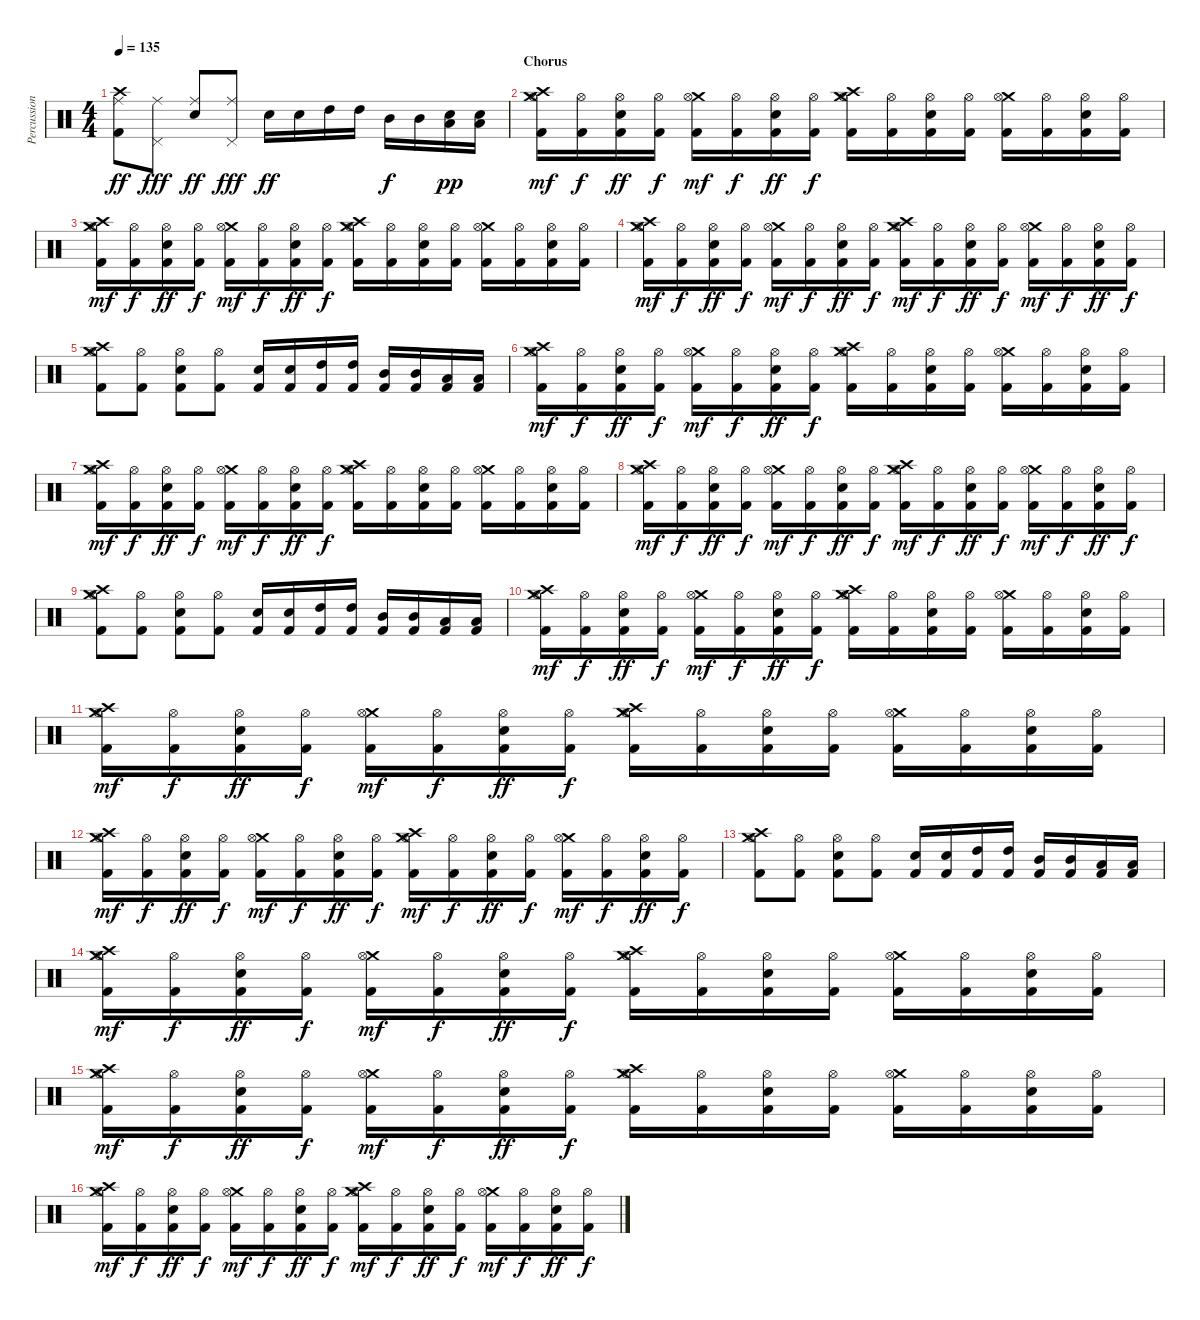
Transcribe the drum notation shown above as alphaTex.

\track ("Percussion" "Percussion") {instrument percussion}
\staff {score}
\articulation defaults
\ts (4 4)
\tempo 135
\clef neutral
\ks c
("Crash high (hit)" "Ride (middle)" "Kick (hit) 2").8{dy ff} ("Ride (middle)" "Pedal Hi-Hat (hit)").8{dy fff} ("Ride (middle)" "Electric Snare (hit)").8{dy ff} ("Ride (middle)" "Pedal Hi-Hat (hit)").8{dy fff} "Electric Snare (hit)".16{dy ff} "Electric Snare (hit)".16 "High Tom (hit)".16 "High Tom (hit)".16 "Mid Tom (hit)".16{dy f} "Mid Tom (hit)".16 ("Low Tom (hit)" "Electric Snare (hit)").16{dy pp} ("Low Tom (hit)" "Electric Snare (hit)").16 |
\section ("" "Chorus")
("Crash high (hit)" "Crash medium (hit)" "Hi-Hat (open)" "Kick (hit) 2").16{dy mf} ("Hi-Hat (open)" "Kick (hit) 2").16{dy f} ("Hi-Hat (open)" "Electric Snare (hit)" "Kick (hit) 2").16{dy ff} ("Hi-Hat (open)" "Kick (hit) 2").16{dy f} ("Crash medium (hit)" "Hi-Hat (open)" "Kick (hit) 2").16{dy mf} ("Hi-Hat (open)" "Kick (hit) 2").16{dy f} ("Hi-Hat (open)" "Electric Snare (hit)" "Kick (hit) 2").16{dy ff} ("Hi-Hat (open)" "Kick (hit) 2").16{dy f} ("Crash high (hit)" "Crash medium (hit)" "Hi-Hat (open)" "Kick (hit) 2").16 ("Hi-Hat (open)" "Kick (hit) 2").16 ("Hi-Hat (open)" "Electric Snare (hit)" "Kick (hit) 2").16 ("Hi-Hat (open)" "Kick (hit) 2").16 ("Crash medium (hit)" "Hi-Hat (open)" "Kick (hit) 2").16 ("Hi-Hat (open)" "Kick (hit) 2").16 ("Hi-Hat (open)" "Electric Snare (hit)" "Kick (hit) 2").16 ("Hi-Hat (open)" "Kick (hit) 2").16 |
("Crash high (hit)" "Crash medium (hit)" "Hi-Hat (open)" "Kick (hit) 2").16{dy mf} ("Hi-Hat (open)" "Kick (hit) 2").16{dy f} ("Hi-Hat (open)" "Electric Snare (hit)" "Kick (hit) 2").16{dy ff} ("Hi-Hat (open)" "Kick (hit) 2").16{dy f} ("Crash medium (hit)" "Hi-Hat (open)" "Kick (hit) 2").16{dy mf} ("Hi-Hat (open)" "Kick (hit) 2").16{dy f} ("Hi-Hat (open)" "Electric Snare (hit)" "Kick (hit) 2").16{dy ff} ("Hi-Hat (open)" "Kick (hit) 2").16{dy f} ("Crash high (hit)" "Crash medium (hit)" "Hi-Hat (open)" "Kick (hit) 2").16 ("Hi-Hat (open)" "Kick (hit) 2").16 ("Hi-Hat (open)" "Electric Snare (hit)" "Kick (hit) 2").16 ("Hi-Hat (open)" "Kick (hit) 2").16 ("Crash medium (hit)" "Hi-Hat (open)" "Kick (hit) 2").16 ("Hi-Hat (open)" "Kick (hit) 2").16 ("Hi-Hat (open)" "Electric Snare (hit)" "Kick (hit) 2").16 ("Hi-Hat (open)" "Kick (hit) 2").16 |
("Crash high (hit)" "Crash medium (hit)" "Hi-Hat (open)" "Kick (hit) 2").16{dy mf} ("Hi-Hat (open)" "Kick (hit) 2").16{dy f} ("Hi-Hat (open)" "Electric Snare (hit)" "Kick (hit) 2").16{dy ff} ("Hi-Hat (open)" "Kick (hit) 2").16{dy f} ("Crash medium (hit)" "Hi-Hat (open)" "Kick (hit) 2").16{dy mf} ("Hi-Hat (open)" "Kick (hit) 2").16{dy f} ("Hi-Hat (open)" "Electric Snare (hit)" "Kick (hit) 2").16{dy ff} ("Hi-Hat (open)" "Kick (hit) 2").16{dy f} ("Crash high (hit)" "Crash medium (hit)" "Hi-Hat (open)" "Kick (hit) 2").16{dy mf} ("Hi-Hat (open)" "Kick (hit) 2").16{dy f} ("Hi-Hat (open)" "Electric Snare (hit)" "Kick (hit) 2").16{dy ff} ("Hi-Hat (open)" "Kick (hit) 2").16{dy f} ("Crash medium (hit)" "Hi-Hat (open)" "Kick (hit) 2").16{dy mf} ("Hi-Hat (open)" "Kick (hit) 2").16{dy f} ("Hi-Hat (open)" "Electric Snare (hit)" "Kick (hit) 2").16{dy ff} ("Hi-Hat (open)" "Kick (hit) 2").16{dy f} |
("Crash high (hit)" "Crash medium (hit)" "Hi-Hat (open)" "Kick (hit) 2").8 ("Hi-Hat (open)" "Kick (hit) 2").8 ("Hi-Hat (open)" "Electric Snare (hit)" "Kick (hit) 2").8 ("Hi-Hat (open)" "Kick (hit) 2").8 ("Electric Snare (hit)" "Kick (hit) 2").16 ("Electric Snare (hit)" "Kick (hit) 2").16 ("High Tom (hit)" "Kick (hit) 2").16 ("High Tom (hit)" "Kick (hit) 2").16 ("Mid Tom (hit)" "Kick (hit) 2").16 ("Mid Tom (hit)" "Kick (hit) 2").16 ("Low Tom (hit)" "Kick (hit) 2").16 ("Low Tom (hit)" "Kick (hit) 2").16 |
("Crash high (hit)" "Crash medium (hit)" "Hi-Hat (open)" "Kick (hit) 2").16{dy mf} ("Hi-Hat (open)" "Kick (hit) 2").16{dy f} ("Hi-Hat (open)" "Electric Snare (hit)" "Kick (hit) 2").16{dy ff} ("Hi-Hat (open)" "Kick (hit) 2").16{dy f} ("Crash medium (hit)" "Hi-Hat (open)" "Kick (hit) 2").16{dy mf} ("Hi-Hat (open)" "Kick (hit) 2").16{dy f} ("Hi-Hat (open)" "Electric Snare (hit)" "Kick (hit) 2").16{dy ff} ("Hi-Hat (open)" "Kick (hit) 2").16{dy f} ("Crash high (hit)" "Crash medium (hit)" "Hi-Hat (open)" "Kick (hit) 2").16 ("Hi-Hat (open)" "Kick (hit) 2").16 ("Hi-Hat (open)" "Electric Snare (hit)" "Kick (hit) 2").16 ("Hi-Hat (open)" "Kick (hit) 2").16 ("Crash medium (hit)" "Hi-Hat (open)" "Kick (hit) 2").16 ("Hi-Hat (open)" "Kick (hit) 2").16 ("Hi-Hat (open)" "Electric Snare (hit)" "Kick (hit) 2").16 ("Hi-Hat (open)" "Kick (hit) 2").16 |
("Crash high (hit)" "Crash medium (hit)" "Hi-Hat (open)" "Kick (hit) 2").16{dy mf} ("Hi-Hat (open)" "Kick (hit) 2").16{dy f} ("Hi-Hat (open)" "Electric Snare (hit)" "Kick (hit) 2").16{dy ff} ("Hi-Hat (open)" "Kick (hit) 2").16{dy f} ("Crash medium (hit)" "Hi-Hat (open)" "Kick (hit) 2").16{dy mf} ("Hi-Hat (open)" "Kick (hit) 2").16{dy f} ("Hi-Hat (open)" "Electric Snare (hit)" "Kick (hit) 2").16{dy ff} ("Hi-Hat (open)" "Kick (hit) 2").16{dy f} ("Crash high (hit)" "Crash medium (hit)" "Hi-Hat (open)" "Kick (hit) 2").16 ("Hi-Hat (open)" "Kick (hit) 2").16 ("Hi-Hat (open)" "Electric Snare (hit)" "Kick (hit) 2").16 ("Hi-Hat (open)" "Kick (hit) 2").16 ("Crash medium (hit)" "Hi-Hat (open)" "Kick (hit) 2").16 ("Hi-Hat (open)" "Kick (hit) 2").16 ("Hi-Hat (open)" "Electric Snare (hit)" "Kick (hit) 2").16 ("Hi-Hat (open)" "Kick (hit) 2").16 |
("Crash high (hit)" "Crash medium (hit)" "Hi-Hat (open)" "Kick (hit) 2").16{dy mf} ("Hi-Hat (open)" "Kick (hit) 2").16{dy f} ("Hi-Hat (open)" "Electric Snare (hit)" "Kick (hit) 2").16{dy ff} ("Hi-Hat (open)" "Kick (hit) 2").16{dy f} ("Crash medium (hit)" "Hi-Hat (open)" "Kick (hit) 2").16{dy mf} ("Hi-Hat (open)" "Kick (hit) 2").16{dy f} ("Hi-Hat (open)" "Electric Snare (hit)" "Kick (hit) 2").16{dy ff} ("Hi-Hat (open)" "Kick (hit) 2").16{dy f} ("Crash high (hit)" "Crash medium (hit)" "Hi-Hat (open)" "Kick (hit) 2").16{dy mf} ("Hi-Hat (open)" "Kick (hit) 2").16{dy f} ("Hi-Hat (open)" "Electric Snare (hit)" "Kick (hit) 2").16{dy ff} ("Hi-Hat (open)" "Kick (hit) 2").16{dy f} ("Crash medium (hit)" "Hi-Hat (open)" "Kick (hit) 2").16{dy mf} ("Hi-Hat (open)" "Kick (hit) 2").16{dy f} ("Hi-Hat (open)" "Electric Snare (hit)" "Kick (hit) 2").16{dy ff} ("Hi-Hat (open)" "Kick (hit) 2").16{dy f} |
("Crash high (hit)" "Crash medium (hit)" "Hi-Hat (open)" "Kick (hit) 2").8 ("Hi-Hat (open)" "Kick (hit) 2").8 ("Hi-Hat (open)" "Electric Snare (hit)" "Kick (hit) 2").8 ("Hi-Hat (open)" "Kick (hit) 2").8 ("Electric Snare (hit)" "Kick (hit) 2").16 ("Electric Snare (hit)" "Kick (hit) 2").16 ("High Tom (hit)" "Kick (hit) 2").16 ("High Tom (hit)" "Kick (hit) 2").16 ("Mid Tom (hit)" "Kick (hit) 2").16 ("Mid Tom (hit)" "Kick (hit) 2").16 ("Low Tom (hit)" "Kick (hit) 2").16 ("Low Tom (hit)" "Kick (hit) 2").16 |
("Crash high (hit)" "Crash medium (hit)" "Hi-Hat (open)" "Kick (hit) 2").16{dy mf} ("Hi-Hat (open)" "Kick (hit) 2").16{dy f} ("Hi-Hat (open)" "Electric Snare (hit)" "Kick (hit) 2").16{dy ff} ("Hi-Hat (open)" "Kick (hit) 2").16{dy f} ("Crash medium (hit)" "Hi-Hat (open)" "Kick (hit) 2").16{dy mf} ("Hi-Hat (open)" "Kick (hit) 2").16{dy f} ("Hi-Hat (open)" "Electric Snare (hit)" "Kick (hit) 2").16{dy ff} ("Hi-Hat (open)" "Kick (hit) 2").16{dy f} ("Crash high (hit)" "Crash medium (hit)" "Hi-Hat (open)" "Kick (hit) 2").16 ("Hi-Hat (open)" "Kick (hit) 2").16 ("Hi-Hat (open)" "Electric Snare (hit)" "Kick (hit) 2").16 ("Hi-Hat (open)" "Kick (hit) 2").16 ("Crash medium (hit)" "Hi-Hat (open)" "Kick (hit) 2").16 ("Hi-Hat (open)" "Kick (hit) 2").16 ("Hi-Hat (open)" "Electric Snare (hit)" "Kick (hit) 2").16 ("Hi-Hat (open)" "Kick (hit) 2").16 |
("Crash high (hit)" "Crash medium (hit)" "Hi-Hat (open)" "Kick (hit) 2").16{dy mf} ("Hi-Hat (open)" "Kick (hit) 2").16{dy f} ("Hi-Hat (open)" "Electric Snare (hit)" "Kick (hit) 2").16{dy ff} ("Hi-Hat (open)" "Kick (hit) 2").16{dy f} ("Crash medium (hit)" "Hi-Hat (open)" "Kick (hit) 2").16{dy mf} ("Hi-Hat (open)" "Kick (hit) 2").16{dy f} ("Hi-Hat (open)" "Electric Snare (hit)" "Kick (hit) 2").16{dy ff} ("Hi-Hat (open)" "Kick (hit) 2").16{dy f} ("Crash high (hit)" "Crash medium (hit)" "Hi-Hat (open)" "Kick (hit) 2").16 ("Hi-Hat (open)" "Kick (hit) 2").16 ("Hi-Hat (open)" "Electric Snare (hit)" "Kick (hit) 2").16 ("Hi-Hat (open)" "Kick (hit) 2").16 ("Crash medium (hit)" "Hi-Hat (open)" "Kick (hit) 2").16 ("Hi-Hat (open)" "Kick (hit) 2").16 ("Hi-Hat (open)" "Electric Snare (hit)" "Kick (hit) 2").16 ("Hi-Hat (open)" "Kick (hit) 2").16 |
("Crash high (hit)" "Crash medium (hit)" "Hi-Hat (open)" "Kick (hit) 2").16{dy mf} ("Hi-Hat (open)" "Kick (hit) 2").16{dy f} ("Hi-Hat (open)" "Electric Snare (hit)" "Kick (hit) 2").16{dy ff} ("Hi-Hat (open)" "Kick (hit) 2").16{dy f} ("Crash medium (hit)" "Hi-Hat (open)" "Kick (hit) 2").16{dy mf} ("Hi-Hat (open)" "Kick (hit) 2").16{dy f} ("Hi-Hat (open)" "Electric Snare (hit)" "Kick (hit) 2").16{dy ff} ("Hi-Hat (open)" "Kick (hit) 2").16{dy f} ("Crash high (hit)" "Crash medium (hit)" "Hi-Hat (open)" "Kick (hit) 2").16{dy mf} ("Hi-Hat (open)" "Kick (hit) 2").16{dy f} ("Hi-Hat (open)" "Electric Snare (hit)" "Kick (hit) 2").16{dy ff} ("Hi-Hat (open)" "Kick (hit) 2").16{dy f} ("Crash medium (hit)" "Hi-Hat (open)" "Kick (hit) 2").16{dy mf} ("Hi-Hat (open)" "Kick (hit) 2").16{dy f} ("Hi-Hat (open)" "Electric Snare (hit)" "Kick (hit) 2").16{dy ff} ("Hi-Hat (open)" "Kick (hit) 2").16{dy f} |
("Crash high (hit)" "Crash medium (hit)" "Hi-Hat (open)" "Kick (hit) 2").8 ("Hi-Hat (open)" "Kick (hit) 2").8 ("Hi-Hat (open)" "Electric Snare (hit)" "Kick (hit) 2").8 ("Hi-Hat (open)" "Kick (hit) 2").8 ("Electric Snare (hit)" "Kick (hit) 2").16 ("Electric Snare (hit)" "Kick (hit) 2").16 ("High Tom (hit)" "Kick (hit) 2").16 ("High Tom (hit)" "Kick (hit) 2").16 ("Mid Tom (hit)" "Kick (hit) 2").16 ("Mid Tom (hit)" "Kick (hit) 2").16 ("Low Tom (hit)" "Kick (hit) 2").16 ("Low Tom (hit)" "Kick (hit) 2").16 |
("Crash high (hit)" "Crash medium (hit)" "Hi-Hat (open)" "Kick (hit) 2").16{dy mf} ("Hi-Hat (open)" "Kick (hit) 2").16{dy f} ("Hi-Hat (open)" "Electric Snare (hit)" "Kick (hit) 2").16{dy ff} ("Hi-Hat (open)" "Kick (hit) 2").16{dy f} ("Crash medium (hit)" "Hi-Hat (open)" "Kick (hit) 2").16{dy mf} ("Hi-Hat (open)" "Kick (hit) 2").16{dy f} ("Hi-Hat (open)" "Electric Snare (hit)" "Kick (hit) 2").16{dy ff} ("Hi-Hat (open)" "Kick (hit) 2").16{dy f} ("Crash high (hit)" "Crash medium (hit)" "Hi-Hat (open)" "Kick (hit) 2").16 ("Hi-Hat (open)" "Kick (hit) 2").16 ("Hi-Hat (open)" "Electric Snare (hit)" "Kick (hit) 2").16 ("Hi-Hat (open)" "Kick (hit) 2").16 ("Crash medium (hit)" "Hi-Hat (open)" "Kick (hit) 2").16 ("Hi-Hat (open)" "Kick (hit) 2").16 ("Hi-Hat (open)" "Electric Snare (hit)" "Kick (hit) 2").16 ("Hi-Hat (open)" "Kick (hit) 2").16 |
("Crash high (hit)" "Crash medium (hit)" "Hi-Hat (open)" "Kick (hit) 2").16{dy mf} ("Hi-Hat (open)" "Kick (hit) 2").16{dy f} ("Hi-Hat (open)" "Electric Snare (hit)" "Kick (hit) 2").16{dy ff} ("Hi-Hat (open)" "Kick (hit) 2").16{dy f} ("Crash medium (hit)" "Hi-Hat (open)" "Kick (hit) 2").16{dy mf} ("Hi-Hat (open)" "Kick (hit) 2").16{dy f} ("Hi-Hat (open)" "Electric Snare (hit)" "Kick (hit) 2").16{dy ff} ("Hi-Hat (open)" "Kick (hit) 2").16{dy f} ("Crash high (hit)" "Crash medium (hit)" "Hi-Hat (open)" "Kick (hit) 2").16 ("Hi-Hat (open)" "Kick (hit) 2").16 ("Hi-Hat (open)" "Electric Snare (hit)" "Kick (hit) 2").16 ("Hi-Hat (open)" "Kick (hit) 2").16 ("Crash medium (hit)" "Hi-Hat (open)" "Kick (hit) 2").16 ("Hi-Hat (open)" "Kick (hit) 2").16 ("Hi-Hat (open)" "Electric Snare (hit)" "Kick (hit) 2").16 ("Hi-Hat (open)" "Kick (hit) 2").16 |
("Crash high (hit)" "Crash medium (hit)" "Hi-Hat (open)" "Kick (hit) 2").16{dy mf} ("Hi-Hat (open)" "Kick (hit) 2").16{dy f} ("Hi-Hat (open)" "Electric Snare (hit)" "Kick (hit) 2").16{dy ff} ("Hi-Hat (open)" "Kick (hit) 2").16{dy f} ("Crash medium (hit)" "Hi-Hat (open)" "Kick (hit) 2").16{dy mf} ("Hi-Hat (open)" "Kick (hit) 2").16{dy f} ("Hi-Hat (open)" "Electric Snare (hit)" "Kick (hit) 2").16{dy ff} ("Hi-Hat (open)" "Kick (hit) 2").16{dy f} ("Crash high (hit)" "Crash medium (hit)" "Hi-Hat (open)" "Kick (hit) 2").16{dy mf} ("Hi-Hat (open)" "Kick (hit) 2").16{dy f} ("Hi-Hat (open)" "Electric Snare (hit)" "Kick (hit) 2").16{dy ff} ("Hi-Hat (open)" "Kick (hit) 2").16{dy f} ("Crash medium (hit)" "Hi-Hat (open)" "Kick (hit) 2").16{dy mf} ("Hi-Hat (open)" "Kick (hit) 2").16{dy f} ("Hi-Hat (open)" "Electric Snare (hit)" "Kick (hit) 2").16{dy ff} ("Hi-Hat (open)" "Kick (hit) 2").16{dy f}
